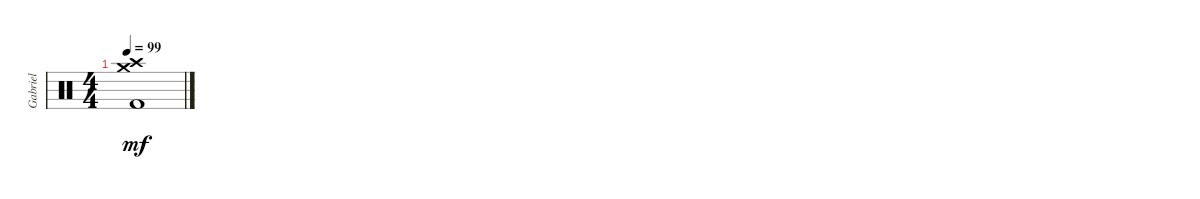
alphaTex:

\track ("Gabriel" "Gabriel") {instrument percussion}
\staff {score}
\articulation defaults
\ts (4 4)
\tempo 99
\clef neutral
\ks c
("Crash medium (hit)" "Crash high (hit)" "Kick (hit) 2").1{dy mf}
